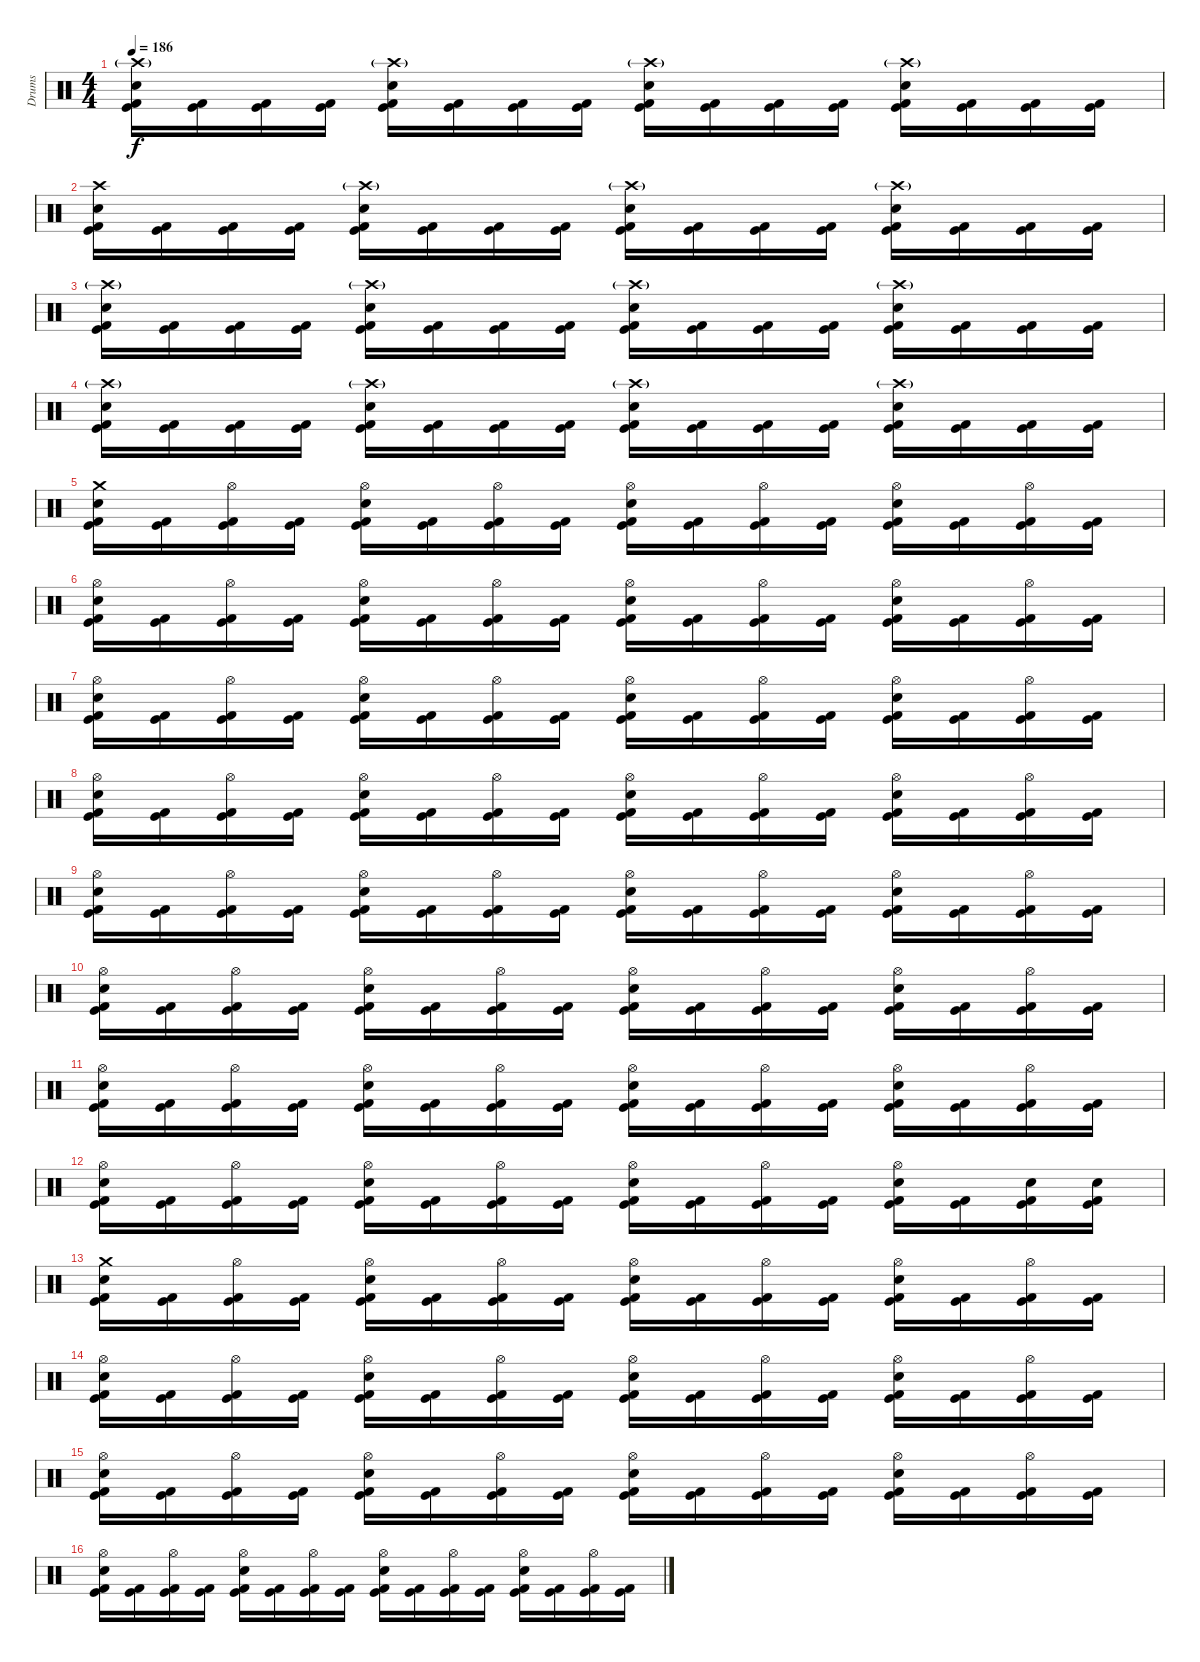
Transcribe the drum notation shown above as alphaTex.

\track ("Drums" "Drums") {instrument percussion}
\staff {score}
\articulation defaults
\ts (4 4)
\tempo 186
\clef neutral
\ks c
("Crash high (hit)"{g} "Electric Snare (hit)" "Kick (hit)" "Kick (hit) 2").16{dy f} ("Kick (hit)" "Kick (hit) 2").16 ("Kick (hit)" "Kick (hit) 2").16 ("Kick (hit)" "Kick (hit) 2").16 ("Crash high (hit)"{g} "Electric Snare (hit)" "Kick (hit)" "Kick (hit) 2").16 ("Kick (hit)" "Kick (hit) 2").16 ("Kick (hit)" "Kick (hit) 2").16 ("Kick (hit)" "Kick (hit) 2").16 ("Crash high (hit)"{g} "Electric Snare (hit)" "Kick (hit)" "Kick (hit) 2").16 ("Kick (hit)" "Kick (hit) 2").16 ("Kick (hit)" "Kick (hit) 2").16 ("Kick (hit)" "Kick (hit) 2").16 ("Crash high (hit)"{g} "Electric Snare (hit)" "Kick (hit)" "Kick (hit) 2").16 ("Kick (hit)" "Kick (hit) 2").16 ("Kick (hit)" "Kick (hit) 2").16 ("Kick (hit)" "Kick (hit) 2").16 |
("Crash high (hit)" "Electric Snare (hit)" "Kick (hit)" "Kick (hit) 2").16 ("Kick (hit)" "Kick (hit) 2").16 ("Kick (hit)" "Kick (hit) 2").16 ("Kick (hit)" "Kick (hit) 2").16 ("Crash high (hit)"{g} "Electric Snare (hit)" "Kick (hit)" "Kick (hit) 2").16 ("Kick (hit)" "Kick (hit) 2").16 ("Kick (hit)" "Kick (hit) 2").16 ("Kick (hit)" "Kick (hit) 2").16 ("Crash high (hit)"{g} "Electric Snare (hit)" "Kick (hit)" "Kick (hit) 2").16 ("Kick (hit)" "Kick (hit) 2").16 ("Kick (hit)" "Kick (hit) 2").16 ("Kick (hit)" "Kick (hit) 2").16 ("Crash high (hit)"{g} "Electric Snare (hit)" "Kick (hit)" "Kick (hit) 2").16 ("Kick (hit)" "Kick (hit) 2").16 ("Kick (hit)" "Kick (hit) 2").16 ("Kick (hit)" "Kick (hit) 2").16 |
("Crash high (hit)"{g} "Electric Snare (hit)" "Kick (hit)" "Kick (hit) 2").16 ("Kick (hit)" "Kick (hit) 2").16 ("Kick (hit)" "Kick (hit) 2").16 ("Kick (hit)" "Kick (hit) 2").16 ("Crash high (hit)"{g} "Electric Snare (hit)" "Kick (hit)" "Kick (hit) 2").16 ("Kick (hit)" "Kick (hit) 2").16 ("Kick (hit)" "Kick (hit) 2").16 ("Kick (hit)" "Kick (hit) 2").16 ("Crash high (hit)"{g} "Electric Snare (hit)" "Kick (hit)" "Kick (hit) 2").16 ("Kick (hit)" "Kick (hit) 2").16 ("Kick (hit)" "Kick (hit) 2").16 ("Kick (hit)" "Kick (hit) 2").16 ("Crash high (hit)"{g} "Electric Snare (hit)" "Kick (hit)" "Kick (hit) 2").16 ("Kick (hit)" "Kick (hit) 2").16 ("Kick (hit)" "Kick (hit) 2").16 ("Kick (hit)" "Kick (hit) 2").16 |
("Crash high (hit)"{g} "Electric Snare (hit)" "Kick (hit)" "Kick (hit) 2").16 ("Kick (hit)" "Kick (hit) 2").16 ("Kick (hit)" "Kick (hit) 2").16 ("Kick (hit)" "Kick (hit) 2").16 ("Crash high (hit)"{g} "Electric Snare (hit)" "Kick (hit)" "Kick (hit) 2").16 ("Kick (hit)" "Kick (hit) 2").16 ("Kick (hit)" "Kick (hit) 2").16 ("Kick (hit)" "Kick (hit) 2").16 ("Crash high (hit)"{g} "Electric Snare (hit)" "Kick (hit)" "Kick (hit) 2").16 ("Kick (hit)" "Kick (hit) 2").16 ("Kick (hit)" "Kick (hit) 2").16 ("Kick (hit)" "Kick (hit) 2").16 ("Crash high (hit)"{g} "Electric Snare (hit)" "Kick (hit)" "Kick (hit) 2").16 ("Kick (hit)" "Kick (hit) 2").16 ("Kick (hit)" "Kick (hit) 2").16 ("Kick (hit)" "Kick (hit) 2").16 |
("Crash medium (hit)" "Electric Snare (hit)" "Kick (hit)" "Kick (hit) 2").16 ("Kick (hit)" "Kick (hit) 2").16 ("Hi-Hat (open)" "Kick (hit)" "Kick (hit) 2").16 ("Kick (hit)" "Kick (hit) 2").16 ("Hi-Hat (open)" "Electric Snare (hit)" "Kick (hit)" "Kick (hit) 2").16 ("Kick (hit)" "Kick (hit) 2").16 ("Hi-Hat (open)" "Kick (hit)" "Kick (hit) 2").16 ("Kick (hit)" "Kick (hit) 2").16 ("Hi-Hat (open)" "Electric Snare (hit)" "Kick (hit)" "Kick (hit) 2").16 ("Kick (hit)" "Kick (hit) 2").16 ("Hi-Hat (open)" "Kick (hit)" "Kick (hit) 2").16 ("Kick (hit)" "Kick (hit) 2").16 ("Hi-Hat (open)" "Electric Snare (hit)" "Kick (hit)" "Kick (hit) 2").16 ("Kick (hit)" "Kick (hit) 2").16 ("Hi-Hat (open)" "Kick (hit)" "Kick (hit) 2").16 ("Kick (hit)" "Kick (hit) 2").16 |
("Hi-Hat (open)" "Electric Snare (hit)" "Kick (hit)" "Kick (hit) 2").16 ("Kick (hit)" "Kick (hit) 2").16 ("Hi-Hat (open)" "Kick (hit)" "Kick (hit) 2").16 ("Kick (hit)" "Kick (hit) 2").16 ("Hi-Hat (open)" "Electric Snare (hit)" "Kick (hit)" "Kick (hit) 2").16 ("Kick (hit)" "Kick (hit) 2").16 ("Hi-Hat (open)" "Kick (hit)" "Kick (hit) 2").16 ("Kick (hit)" "Kick (hit) 2").16 ("Hi-Hat (open)" "Electric Snare (hit)" "Kick (hit)" "Kick (hit) 2").16 ("Kick (hit)" "Kick (hit) 2").16 ("Hi-Hat (open)" "Kick (hit)" "Kick (hit) 2").16 ("Kick (hit)" "Kick (hit) 2").16 ("Hi-Hat (open)" "Electric Snare (hit)" "Kick (hit)" "Kick (hit) 2").16 ("Kick (hit)" "Kick (hit) 2").16 ("Hi-Hat (open)" "Kick (hit)" "Kick (hit) 2").16 ("Kick (hit)" "Kick (hit) 2").16 |
("Hi-Hat (open)" "Electric Snare (hit)" "Kick (hit)" "Kick (hit) 2").16 ("Kick (hit)" "Kick (hit) 2").16 ("Hi-Hat (open)" "Kick (hit)" "Kick (hit) 2").16 ("Kick (hit)" "Kick (hit) 2").16 ("Hi-Hat (open)" "Electric Snare (hit)" "Kick (hit)" "Kick (hit) 2").16 ("Kick (hit)" "Kick (hit) 2").16 ("Hi-Hat (open)" "Kick (hit)" "Kick (hit) 2").16 ("Kick (hit)" "Kick (hit) 2").16 ("Hi-Hat (open)" "Electric Snare (hit)" "Kick (hit)" "Kick (hit) 2").16 ("Kick (hit)" "Kick (hit) 2").16 ("Hi-Hat (open)" "Kick (hit)" "Kick (hit) 2").16 ("Kick (hit)" "Kick (hit) 2").16 ("Hi-Hat (open)" "Electric Snare (hit)" "Kick (hit)" "Kick (hit) 2").16 ("Kick (hit)" "Kick (hit) 2").16 ("Hi-Hat (open)" "Kick (hit)" "Kick (hit) 2").16 ("Kick (hit)" "Kick (hit) 2").16 |
("Hi-Hat (open)" "Electric Snare (hit)" "Kick (hit)" "Kick (hit) 2").16 ("Kick (hit)" "Kick (hit) 2").16 ("Hi-Hat (open)" "Kick (hit)" "Kick (hit) 2").16 ("Kick (hit)" "Kick (hit) 2").16 ("Hi-Hat (open)" "Electric Snare (hit)" "Kick (hit)" "Kick (hit) 2").16 ("Kick (hit)" "Kick (hit) 2").16 ("Hi-Hat (open)" "Kick (hit)" "Kick (hit) 2").16 ("Kick (hit)" "Kick (hit) 2").16 ("Hi-Hat (open)" "Electric Snare (hit)" "Kick (hit)" "Kick (hit) 2").16 ("Kick (hit)" "Kick (hit) 2").16 ("Hi-Hat (open)" "Kick (hit)" "Kick (hit) 2").16 ("Kick (hit)" "Kick (hit) 2").16 ("Hi-Hat (open)" "Electric Snare (hit)" "Kick (hit)" "Kick (hit) 2").16 ("Kick (hit)" "Kick (hit) 2").16 ("Hi-Hat (open)" "Kick (hit)" "Kick (hit) 2").16 ("Kick (hit)" "Kick (hit) 2").16 |
("Hi-Hat (open)" "Electric Snare (hit)" "Kick (hit)" "Kick (hit) 2").16 ("Kick (hit)" "Kick (hit) 2").16 ("Hi-Hat (open)" "Kick (hit)" "Kick (hit) 2").16 ("Kick (hit)" "Kick (hit) 2").16 ("Hi-Hat (open)" "Electric Snare (hit)" "Kick (hit)" "Kick (hit) 2").16 ("Kick (hit)" "Kick (hit) 2").16 ("Hi-Hat (open)" "Kick (hit)" "Kick (hit) 2").16 ("Kick (hit)" "Kick (hit) 2").16 ("Hi-Hat (open)" "Electric Snare (hit)" "Kick (hit)" "Kick (hit) 2").16 ("Kick (hit)" "Kick (hit) 2").16 ("Hi-Hat (open)" "Kick (hit)" "Kick (hit) 2").16 ("Kick (hit)" "Kick (hit) 2").16 ("Hi-Hat (open)" "Electric Snare (hit)" "Kick (hit)" "Kick (hit) 2").16 ("Kick (hit)" "Kick (hit) 2").16 ("Hi-Hat (open)" "Kick (hit)" "Kick (hit) 2").16 ("Kick (hit)" "Kick (hit) 2").16 |
("Hi-Hat (open)" "Electric Snare (hit)" "Kick (hit)" "Kick (hit) 2").16 ("Kick (hit)" "Kick (hit) 2").16 ("Hi-Hat (open)" "Kick (hit)" "Kick (hit) 2").16 ("Kick (hit)" "Kick (hit) 2").16 ("Hi-Hat (open)" "Electric Snare (hit)" "Kick (hit)" "Kick (hit) 2").16 ("Kick (hit)" "Kick (hit) 2").16 ("Hi-Hat (open)" "Kick (hit)" "Kick (hit) 2").16 ("Kick (hit)" "Kick (hit) 2").16 ("Hi-Hat (open)" "Electric Snare (hit)" "Kick (hit)" "Kick (hit) 2").16 ("Kick (hit)" "Kick (hit) 2").16 ("Hi-Hat (open)" "Kick (hit)" "Kick (hit) 2").16 ("Kick (hit)" "Kick (hit) 2").16 ("Hi-Hat (open)" "Electric Snare (hit)" "Kick (hit)" "Kick (hit) 2").16 ("Kick (hit)" "Kick (hit) 2").16 ("Hi-Hat (open)" "Kick (hit)" "Kick (hit) 2").16 ("Kick (hit)" "Kick (hit) 2").16 |
("Hi-Hat (open)" "Electric Snare (hit)" "Kick (hit)" "Kick (hit) 2").16 ("Kick (hit)" "Kick (hit) 2").16 ("Hi-Hat (open)" "Kick (hit)" "Kick (hit) 2").16 ("Kick (hit)" "Kick (hit) 2").16 ("Hi-Hat (open)" "Electric Snare (hit)" "Kick (hit)" "Kick (hit) 2").16 ("Kick (hit)" "Kick (hit) 2").16 ("Hi-Hat (open)" "Kick (hit)" "Kick (hit) 2").16 ("Kick (hit)" "Kick (hit) 2").16 ("Hi-Hat (open)" "Electric Snare (hit)" "Kick (hit)" "Kick (hit) 2").16 ("Kick (hit)" "Kick (hit) 2").16 ("Hi-Hat (open)" "Kick (hit)" "Kick (hit) 2").16 ("Kick (hit)" "Kick (hit) 2").16 ("Hi-Hat (open)" "Electric Snare (hit)" "Kick (hit)" "Kick (hit) 2").16 ("Kick (hit)" "Kick (hit) 2").16 ("Hi-Hat (open)" "Kick (hit)" "Kick (hit) 2").16 ("Kick (hit)" "Kick (hit) 2").16 |
("Hi-Hat (open)" "Electric Snare (hit)" "Kick (hit)" "Kick (hit) 2").16 ("Kick (hit)" "Kick (hit) 2").16 ("Hi-Hat (open)" "Kick (hit)" "Kick (hit) 2").16 ("Kick (hit)" "Kick (hit) 2").16 ("Hi-Hat (open)" "Electric Snare (hit)" "Kick (hit)" "Kick (hit) 2").16 ("Kick (hit)" "Kick (hit) 2").16 ("Hi-Hat (open)" "Kick (hit)" "Kick (hit) 2").16 ("Kick (hit)" "Kick (hit) 2").16 ("Hi-Hat (open)" "Electric Snare (hit)" "Kick (hit)" "Kick (hit) 2").16 ("Kick (hit)" "Kick (hit) 2").16 ("Hi-Hat (open)" "Kick (hit)" "Kick (hit) 2").16 ("Kick (hit)" "Kick (hit) 2").16 ("Hi-Hat (open)" "Electric Snare (hit)" "Kick (hit)" "Kick (hit) 2").16 ("Kick (hit)" "Kick (hit) 2").16 ("Electric Snare (hit)" "Kick (hit)" "Kick (hit) 2").16 ("Electric Snare (hit)" "Kick (hit)" "Kick (hit) 2").16 |
("Crash medium (hit)" "Electric Snare (hit)" "Kick (hit)" "Kick (hit) 2").16 ("Kick (hit)" "Kick (hit) 2").16 ("Hi-Hat (open)" "Kick (hit)" "Kick (hit) 2").16 ("Kick (hit)" "Kick (hit) 2").16 ("Hi-Hat (open)" "Electric Snare (hit)" "Kick (hit)" "Kick (hit) 2").16 ("Kick (hit)" "Kick (hit) 2").16 ("Hi-Hat (open)" "Kick (hit)" "Kick (hit) 2").16 ("Kick (hit)" "Kick (hit) 2").16 ("Hi-Hat (open)" "Electric Snare (hit)" "Kick (hit)" "Kick (hit) 2").16 ("Kick (hit)" "Kick (hit) 2").16 ("Hi-Hat (open)" "Kick (hit)" "Kick (hit) 2").16 ("Kick (hit)" "Kick (hit) 2").16 ("Hi-Hat (open)" "Electric Snare (hit)" "Kick (hit)" "Kick (hit) 2").16 ("Kick (hit)" "Kick (hit) 2").16 ("Hi-Hat (open)" "Kick (hit)" "Kick (hit) 2").16 ("Kick (hit)" "Kick (hit) 2").16 |
("Hi-Hat (open)" "Electric Snare (hit)" "Kick (hit)" "Kick (hit) 2").16 ("Kick (hit)" "Kick (hit) 2").16 ("Hi-Hat (open)" "Kick (hit)" "Kick (hit) 2").16 ("Kick (hit)" "Kick (hit) 2").16 ("Hi-Hat (open)" "Electric Snare (hit)" "Kick (hit)" "Kick (hit) 2").16 ("Kick (hit)" "Kick (hit) 2").16 ("Hi-Hat (open)" "Kick (hit)" "Kick (hit) 2").16 ("Kick (hit)" "Kick (hit) 2").16 ("Hi-Hat (open)" "Electric Snare (hit)" "Kick (hit)" "Kick (hit) 2").16 ("Kick (hit)" "Kick (hit) 2").16 ("Hi-Hat (open)" "Kick (hit)" "Kick (hit) 2").16 ("Kick (hit)" "Kick (hit) 2").16 ("Hi-Hat (open)" "Electric Snare (hit)" "Kick (hit)" "Kick (hit) 2").16 ("Kick (hit)" "Kick (hit) 2").16 ("Hi-Hat (open)" "Kick (hit)" "Kick (hit) 2").16 ("Kick (hit)" "Kick (hit) 2").16 |
("Hi-Hat (open)" "Electric Snare (hit)" "Kick (hit)" "Kick (hit) 2").16 ("Kick (hit)" "Kick (hit) 2").16 ("Hi-Hat (open)" "Kick (hit)" "Kick (hit) 2").16 ("Kick (hit)" "Kick (hit) 2").16 ("Hi-Hat (open)" "Electric Snare (hit)" "Kick (hit)" "Kick (hit) 2").16 ("Kick (hit)" "Kick (hit) 2").16 ("Hi-Hat (open)" "Kick (hit)" "Kick (hit) 2").16 ("Kick (hit)" "Kick (hit) 2").16 ("Hi-Hat (open)" "Electric Snare (hit)" "Kick (hit)" "Kick (hit) 2").16 ("Kick (hit)" "Kick (hit) 2").16 ("Hi-Hat (open)" "Kick (hit)" "Kick (hit) 2").16 ("Kick (hit)" "Kick (hit) 2").16 ("Hi-Hat (open)" "Electric Snare (hit)" "Kick (hit)" "Kick (hit) 2").16 ("Kick (hit)" "Kick (hit) 2").16 ("Hi-Hat (open)" "Kick (hit)" "Kick (hit) 2").16 ("Kick (hit)" "Kick (hit) 2").16 |
("Hi-Hat (open)" "Electric Snare (hit)" "Kick (hit)" "Kick (hit) 2").16 ("Kick (hit)" "Kick (hit) 2").16 ("Hi-Hat (open)" "Kick (hit)" "Kick (hit) 2").16 ("Kick (hit)" "Kick (hit) 2").16 ("Hi-Hat (open)" "Electric Snare (hit)" "Kick (hit)" "Kick (hit) 2").16 ("Kick (hit)" "Kick (hit) 2").16 ("Hi-Hat (open)" "Kick (hit)" "Kick (hit) 2").16 ("Kick (hit)" "Kick (hit) 2").16 ("Hi-Hat (open)" "Electric Snare (hit)" "Kick (hit)" "Kick (hit) 2").16 ("Kick (hit)" "Kick (hit) 2").16 ("Hi-Hat (open)" "Kick (hit)" "Kick (hit) 2").16 ("Kick (hit)" "Kick (hit) 2").16 ("Hi-Hat (open)" "Electric Snare (hit)" "Kick (hit)" "Kick (hit) 2").16 ("Kick (hit)" "Kick (hit) 2").16 ("Hi-Hat (open)" "Kick (hit)" "Kick (hit) 2").16 ("Kick (hit)" "Kick (hit) 2").16
